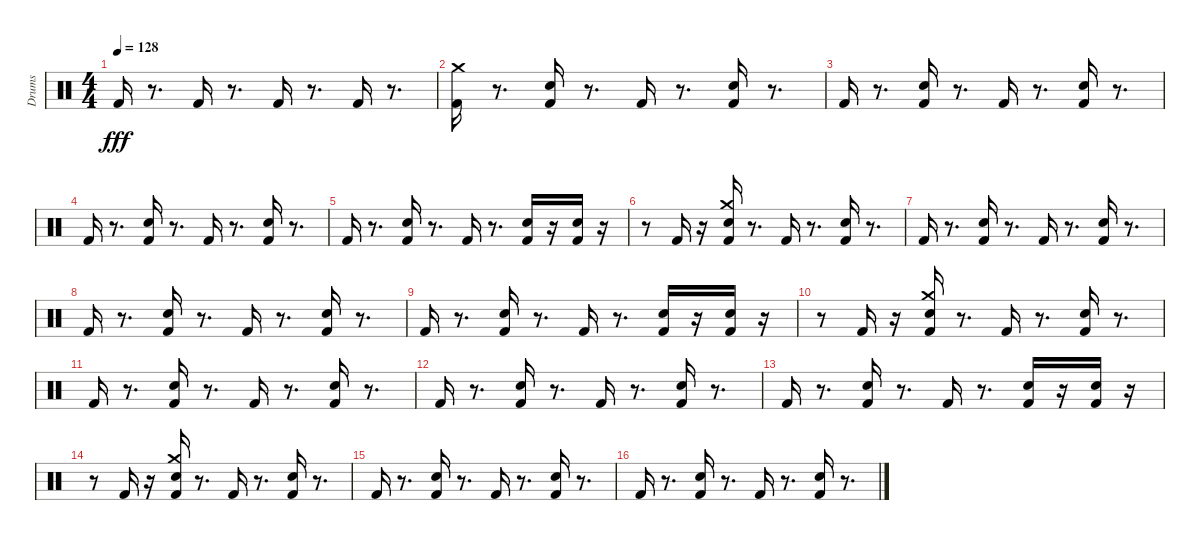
\track ("Drums" "Drums") {instrument percussion}
\staff {score}
\articulation defaults
\ts (4 4)
\tempo 128
\clef neutral
\ks c "Kick (hit) 2".16{dy fff}
r.8{d} "Kick (hit) 2".16 r.8{d} "Kick (hit) 2".16 r.8{d} "Kick (hit) 2".16 r.8{d} |
("Kick (hit) 2" "Crash medium (hit)").16 r.8{d} ("Kick (hit) 2" "Electric Snare (hit)").16 r.8{d} "Kick (hit) 2".16 r.8{d} ("Kick (hit) 2" "Electric Snare (hit)").16 r.8{d} |
"Kick (hit) 2".16 r.8{d} ("Kick (hit) 2" "Electric Snare (hit)").16 r.8{d} "Kick (hit) 2".16 r.8{d} ("Kick (hit) 2" "Electric Snare (hit)").16 r.8{d} |
"Kick (hit) 2".16 r.8{d} ("Kick (hit) 2" "Electric Snare (hit)").16 r.8{d} "Kick (hit) 2".16 r.8{d} ("Kick (hit) 2" "Electric Snare (hit)").16 r.8{d} |
"Kick (hit) 2".16 r.8{d} ("Kick (hit) 2" "Electric Snare (hit)").16 r.8{d} "Kick (hit) 2".16 r.8{d} ("Kick (hit) 2" "Electric Snare (hit)").16 r.16 ("Kick (hit) 2" "Electric Snare (hit)").16 r.16 |
r.8 "Kick (hit) 2".16 r.16 ("Crash medium (hit)" "Kick (hit) 2" "Electric Snare (hit)").16 r.8{d} "Kick (hit) 2".16 r.8{d} ("Kick (hit) 2" "Electric Snare (hit)").16 r.8{d} |
"Kick (hit) 2".16 r.8{d} ("Kick (hit) 2" "Electric Snare (hit)").16 r.8{d} "Kick (hit) 2".16 r.8{d} ("Kick (hit) 2" "Electric Snare (hit)").16 r.8{d} |
"Kick (hit) 2".16 r.8{d} ("Kick (hit) 2" "Electric Snare (hit)").16 r.8{d} "Kick (hit) 2".16 r.8{d} ("Kick (hit) 2" "Electric Snare (hit)").16 r.8{d} |
"Kick (hit) 2".16 r.8{d} ("Kick (hit) 2" "Electric Snare (hit)").16 r.8{d} "Kick (hit) 2".16 r.8{d} ("Kick (hit) 2" "Electric Snare (hit)").16 r.16 ("Kick (hit) 2" "Electric Snare (hit)").16 r.16 |
r.8 "Kick (hit) 2".16 r.16 ("Crash medium (hit)" "Kick (hit) 2" "Electric Snare (hit)").16 r.8{d} "Kick (hit) 2".16 r.8{d} ("Kick (hit) 2" "Electric Snare (hit)").16 r.8{d} |
"Kick (hit) 2".16 r.8{d} ("Kick (hit) 2" "Electric Snare (hit)").16 r.8{d} "Kick (hit) 2".16 r.8{d} ("Kick (hit) 2" "Electric Snare (hit)").16 r.8{d} |
"Kick (hit) 2".16 r.8{d} ("Kick (hit) 2" "Electric Snare (hit)").16 r.8{d} "Kick (hit) 2".16 r.8{d} ("Kick (hit) 2" "Electric Snare (hit)").16 r.8{d} |
"Kick (hit) 2".16 r.8{d} ("Kick (hit) 2" "Electric Snare (hit)").16 r.8{d} "Kick (hit) 2".16 r.8{d} ("Kick (hit) 2" "Electric Snare (hit)").16 r.16 ("Kick (hit) 2" "Electric Snare (hit)").16 r.16 |
r.8 "Kick (hit) 2".16 r.16 ("Crash medium (hit)" "Kick (hit) 2" "Electric Snare (hit)").16 r.8{d} "Kick (hit) 2".16 r.8{d} ("Kick (hit) 2" "Electric Snare (hit)").16 r.8{d} |
"Kick (hit) 2".16 r.8{d} ("Kick (hit) 2" "Electric Snare (hit)").16 r.8{d} "Kick (hit) 2".16 r.8{d} ("Kick (hit) 2" "Electric Snare (hit)").16 r.8{d} |
"Kick (hit) 2".16 r.8{d} ("Kick (hit) 2" "Electric Snare (hit)").16 r.8{d} "Kick (hit) 2".16 r.8{d} ("Kick (hit) 2" "Electric Snare (hit)").16 r.8{d}
